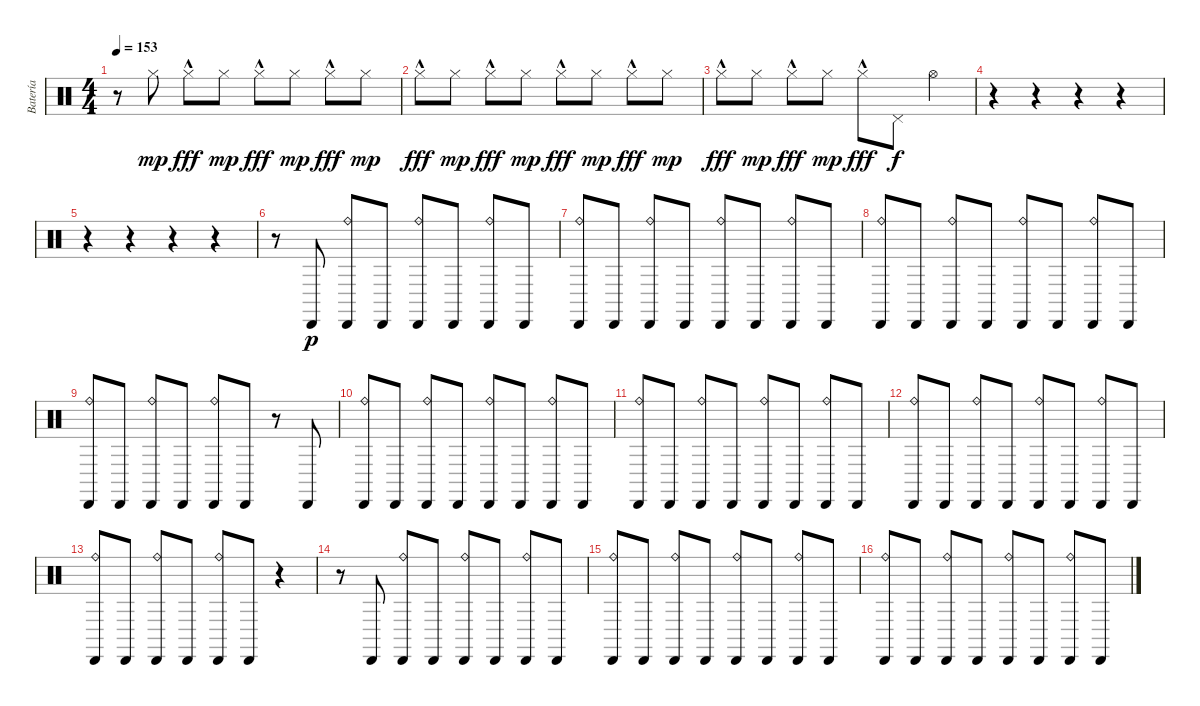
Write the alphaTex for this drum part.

\track ("Batería" "Batería") {instrument percussion}
\staff {score}
\articulation defaults
\ts (4 4)
\tempo 153
\clef neutral
\ks c
r.8{dy mp} "Hi-Hat (closed)".8 "Hi-Hat (closed)"{hac}.8{dy fff} "Hi-Hat (closed)".8{dy mp} "Hi-Hat (closed)"{hac}.8{dy fff} "Hi-Hat (closed)".8{dy mp} "Hi-Hat (closed)"{hac}.8{dy fff} "Hi-Hat (closed)".8{dy mp} |
"Hi-Hat (closed)"{hac}.8{dy fff} "Hi-Hat (closed)".8{dy mp} "Hi-Hat (closed)"{hac}.8{dy fff} "Hi-Hat (closed)".8{dy mp} "Hi-Hat (closed)"{hac}.8{dy fff} "Hi-Hat (closed)".8{dy mp} "Hi-Hat (closed)"{hac}.8{dy fff} "Hi-Hat (closed)".8{dy mp} |
"Hi-Hat (closed)"{hac}.8{dy fff} "Hi-Hat (closed)".8{dy mp} "Hi-Hat (closed)"{hac}.8{dy fff} "Hi-Hat (closed)".8{dy mp} "Hi-Hat (closed)"{hac}.8{dy fff} "Pedal Hi-Hat (hit)".8{dy f} "Hi-Hat (open)".4 |
r.4 r.4 r.4 r.4 |
r.4 r.4 r.4 r.4 |
r.8 "Cabasa (hit)".8{dy p} ("Cabasa (hit)" "Ride (bell)").8 "Cabasa (hit)".8 ("Cabasa (hit)" "Ride (bell)").8 "Cabasa (hit)".8 ("Cabasa (hit)" "Ride (bell)").8 "Cabasa (hit)".8 |
("Cabasa (hit)" "Ride (bell)").8 "Cabasa (hit)".8 ("Cabasa (hit)" "Ride (bell)").8 "Cabasa (hit)".8 ("Cabasa (hit)" "Ride (bell)").8 "Cabasa (hit)".8 ("Cabasa (hit)" "Ride (bell)").8 "Cabasa (hit)".8 |
("Cabasa (hit)" "Ride (bell)").8 "Cabasa (hit)".8 ("Cabasa (hit)" "Ride (bell)").8 "Cabasa (hit)".8 ("Cabasa (hit)" "Ride (bell)").8 "Cabasa (hit)".8 ("Cabasa (hit)" "Ride (bell)").8 "Cabasa (hit)".8 |
("Cabasa (hit)" "Ride (bell)").8 "Cabasa (hit)".8 ("Cabasa (hit)" "Ride (bell)").8 "Cabasa (hit)".8 ("Cabasa (hit)" "Ride (bell)").8 "Cabasa (hit)".8 r.8 "Cabasa (hit)".8 |
("Cabasa (hit)" "Ride (bell)").8 "Cabasa (hit)".8 ("Cabasa (hit)" "Ride (bell)").8 "Cabasa (hit)".8 ("Cabasa (hit)" "Ride (bell)").8 "Cabasa (hit)".8 ("Cabasa (hit)" "Ride (bell)").8 "Cabasa (hit)".8 |
("Cabasa (hit)" "Ride (bell)").8 "Cabasa (hit)".8 ("Cabasa (hit)" "Ride (bell)").8 "Cabasa (hit)".8 ("Cabasa (hit)" "Ride (bell)").8 "Cabasa (hit)".8 ("Cabasa (hit)" "Ride (bell)").8 "Cabasa (hit)".8 |
("Cabasa (hit)" "Ride (bell)").8 "Cabasa (hit)".8 ("Cabasa (hit)" "Ride (bell)").8 "Cabasa (hit)".8 ("Cabasa (hit)" "Ride (bell)").8 "Cabasa (hit)".8 ("Cabasa (hit)" "Ride (bell)").8 "Cabasa (hit)".8 |
("Cabasa (hit)" "Ride (bell)").8 "Cabasa (hit)".8 ("Cabasa (hit)" "Ride (bell)").8 "Cabasa (hit)".8 ("Cabasa (hit)" "Ride (bell)").8 "Cabasa (hit)".8 r.4 |
r.8 "Cabasa (hit)".8 ("Cabasa (hit)" "Ride (bell)").8 "Cabasa (hit)".8 ("Cabasa (hit)" "Ride (bell)").8 "Cabasa (hit)".8 ("Cabasa (hit)" "Ride (bell)").8 "Cabasa (hit)".8 |
("Cabasa (hit)" "Ride (bell)").8 "Cabasa (hit)".8 ("Cabasa (hit)" "Ride (bell)").8 "Cabasa (hit)".8 ("Cabasa (hit)" "Ride (bell)").8 "Cabasa (hit)".8 ("Cabasa (hit)" "Ride (bell)").8 "Cabasa (hit)".8 |
("Cabasa (hit)" "Ride (bell)").8 "Cabasa (hit)".8 ("Cabasa (hit)" "Ride (bell)").8 "Cabasa (hit)".8 ("Cabasa (hit)" "Ride (bell)").8 "Cabasa (hit)".8 ("Cabasa (hit)" "Ride (bell)").8 "Cabasa (hit)".8
